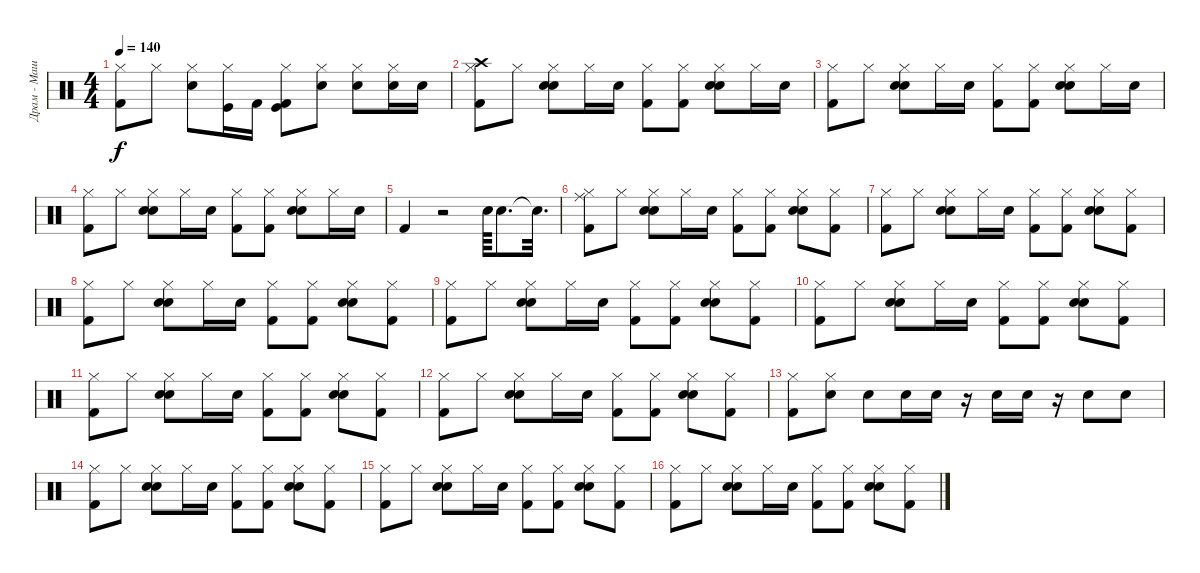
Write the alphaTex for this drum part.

\track ("Драм - Машина" "Драм - Маш") {instrument percussion}
\staff {score}
\articulation defaults
\ts (4 4)
\tempo 140
\clef neutral
\ks c
("Hi-Hat (closed)" "Kick (hit) 2").8{dy f} "Hi-Hat (closed)".8 ("Hi-Hat (closed)" "Electric Snare (hit)").8 ("Hi-Hat (closed)" "Kick (hit)").16 "Kick (hit) 2".16 ("Kick (hit) 2" "Hi-Hat (closed)" "Kick (hit)").8 ("Electric Snare (hit)" "Hi-Hat (closed)").8 ("Hi-Hat (closed)" "Electric Snare (hit)").8 ("Hi-Hat (closed)" "Electric Snare (hit)").16 "Electric Snare (hit)".16 |
("Kick (hit) 2" "Crash high (hit)" "Hi-Hat (closed)").8 "Hi-Hat (closed)".8 ("Hand Clap (hit)" "Snare (hit) 2" "Hi-Hat (closed)").8 "Hi-Hat (closed)".16 "Snare (hit) 2".16 ("Kick (hit) 2" "Hi-Hat (closed)").8 ("Hi-Hat (closed)" "Kick (hit) 2").8 ("Hand Clap (hit)" "Snare (hit) 2" "Hi-Hat (closed)").8 "Hi-Hat (closed)".16 "Snare (hit) 2".16 |
("Kick (hit) 2" "Hi-Hat (closed)").8 "Hi-Hat (closed)".8 ("Hand Clap (hit)" "Snare (hit) 2" "Hi-Hat (closed)").8 "Hi-Hat (closed)".16 "Snare (hit) 2".16 ("Kick (hit) 2" "Hi-Hat (closed)").8 ("Hi-Hat (closed)" "Kick (hit) 2").8 ("Hand Clap (hit)" "Snare (hit) 2" "Hi-Hat (closed)").8 "Hi-Hat (closed)".16 "Snare (hit) 2".16 |
("Kick (hit) 2" "Hi-Hat (closed)").8 "Hi-Hat (closed)".8 ("Hand Clap (hit)" "Snare (hit) 2" "Hi-Hat (closed)").8 "Hi-Hat (closed)".16 "Snare (hit) 2".16 ("Kick (hit) 2" "Hi-Hat (closed)").8 ("Hi-Hat (closed)" "Kick (hit) 2").8 ("Hand Clap (hit)" "Snare (hit) 2" "Hi-Hat (closed)").8 "Hi-Hat (closed)".16 "Snare (hit) 2".16 |
"Kick (hit) 2".4 r.2 "Snare (hit) 2".64 "Electric Snare (hit)".8{d} "Snare (hit)"{t}.32{d} |
("Kick (hit) 2" "Ride (middle)" "Hi-Hat (closed)").8 "Hi-Hat (closed)".8 ("Hand Clap (hit)" "Snare (hit) 2" "Hi-Hat (closed)").8 "Hi-Hat (closed)".16 "Snare (hit) 2".16 ("Kick (hit) 2" "Hi-Hat (closed)").8 ("Hi-Hat (closed)" "Kick (hit) 2").8 ("Hand Clap (hit)" "Snare (hit) 2" "Hi-Hat (closed)").8 ("Hi-Hat (closed)" "Kick (hit) 2").8 |
("Kick (hit) 2" "Hi-Hat (closed)").8 "Hi-Hat (closed)".8 ("Hand Clap (hit)" "Snare (hit) 2" "Hi-Hat (closed)").8 "Hi-Hat (closed)".16 "Snare (hit) 2".16 ("Kick (hit) 2" "Hi-Hat (closed)").8 ("Hi-Hat (closed)" "Kick (hit) 2").8 ("Hand Clap (hit)" "Snare (hit) 2" "Hi-Hat (closed)").8 ("Hi-Hat (closed)" "Kick (hit) 2").8 |
("Kick (hit) 2" "Hi-Hat (closed)").8 "Hi-Hat (closed)".8 ("Hand Clap (hit)" "Snare (hit) 2" "Hi-Hat (closed)").8 "Hi-Hat (closed)".16 "Snare (hit) 2".16 ("Kick (hit) 2" "Hi-Hat (closed)").8 ("Hi-Hat (closed)" "Kick (hit) 2").8 ("Hand Clap (hit)" "Snare (hit) 2" "Hi-Hat (closed)").8 ("Hi-Hat (closed)" "Kick (hit) 2").8 |
("Kick (hit) 2" "Hi-Hat (closed)").8 "Hi-Hat (closed)".8 ("Hand Clap (hit)" "Snare (hit) 2" "Hi-Hat (closed)").8 "Hi-Hat (closed)".16 "Snare (hit) 2".16 ("Kick (hit) 2" "Hi-Hat (closed)").8 ("Hi-Hat (closed)" "Kick (hit) 2").8 ("Hand Clap (hit)" "Snare (hit) 2" "Hi-Hat (closed)").8 ("Hi-Hat (closed)" "Kick (hit) 2").8 |
("Kick (hit) 2" "Hi-Hat (closed)").8 "Hi-Hat (closed)".8 ("Hand Clap (hit)" "Snare (hit) 2" "Hi-Hat (closed)").8 "Hi-Hat (closed)".16 "Snare (hit) 2".16 ("Kick (hit) 2" "Hi-Hat (closed)").8 ("Hi-Hat (closed)" "Kick (hit) 2").8 ("Hand Clap (hit)" "Snare (hit) 2" "Hi-Hat (closed)").8 ("Hi-Hat (closed)" "Kick (hit) 2").8 |
("Kick (hit) 2" "Hi-Hat (closed)").8 "Hi-Hat (closed)".8 ("Hand Clap (hit)" "Snare (hit) 2" "Hi-Hat (closed)").8 "Hi-Hat (closed)".16 "Snare (hit) 2".16 ("Kick (hit) 2" "Hi-Hat (closed)").8 ("Hi-Hat (closed)" "Kick (hit) 2").8 ("Hand Clap (hit)" "Snare (hit) 2" "Hi-Hat (closed)").8 ("Hi-Hat (closed)" "Kick (hit) 2").8 |
("Kick (hit) 2" "Hi-Hat (closed)").8 "Hi-Hat (closed)".8 ("Hand Clap (hit)" "Snare (hit) 2" "Hi-Hat (closed)").8 "Hi-Hat (closed)".16 "Snare (hit) 2".16 ("Kick (hit) 2" "Hi-Hat (closed)").8 ("Hi-Hat (closed)" "Kick (hit) 2").8 ("Hand Clap (hit)" "Snare (hit) 2" "Hi-Hat (closed)").8 ("Hi-Hat (closed)" "Kick (hit) 2").8 |
("Kick (hit) 2" "Hi-Hat (closed)").8 ("Hi-Hat (closed)" "Electric Snare (hit)").8 "Electric Snare (hit)".8 "Snare (hit) 2".16 "Electric Snare (hit)".16 r.16 "Electric Snare (hit)".16 "Snare (hit) 2".16 r.16 "Electric Snare (hit)".8 "Electric Snare (hit)".8 |
("Kick (hit) 2" "Hi-Hat (closed)").8 "Hi-Hat (closed)".8 ("Hand Clap (hit)" "Snare (hit) 2" "Hi-Hat (closed)").8 "Hi-Hat (closed)".16 "Snare (hit) 2".16 ("Kick (hit) 2" "Hi-Hat (closed)").8 ("Hi-Hat (closed)" "Kick (hit) 2").8 ("Hand Clap (hit)" "Snare (hit) 2" "Hi-Hat (closed)").8 ("Hi-Hat (closed)" "Kick (hit) 2").8 |
("Kick (hit) 2" "Hi-Hat (closed)").8 "Hi-Hat (closed)".8 ("Hand Clap (hit)" "Snare (hit) 2" "Hi-Hat (closed)").8 "Hi-Hat (closed)".16 "Snare (hit) 2".16 ("Kick (hit) 2" "Hi-Hat (closed)").8 ("Hi-Hat (closed)" "Kick (hit) 2").8 ("Hand Clap (hit)" "Snare (hit) 2" "Hi-Hat (closed)").8 ("Hi-Hat (closed)" "Kick (hit) 2").8 |
("Kick (hit) 2" "Hi-Hat (closed)").8 "Hi-Hat (closed)".8 ("Hand Clap (hit)" "Snare (hit) 2" "Hi-Hat (closed)").8 "Hi-Hat (closed)".16 "Snare (hit) 2".16 ("Kick (hit) 2" "Hi-Hat (closed)").8 ("Hi-Hat (closed)" "Kick (hit) 2").8 ("Hand Clap (hit)" "Snare (hit) 2" "Hi-Hat (closed)").8 ("Hi-Hat (closed)" "Kick (hit) 2").8
